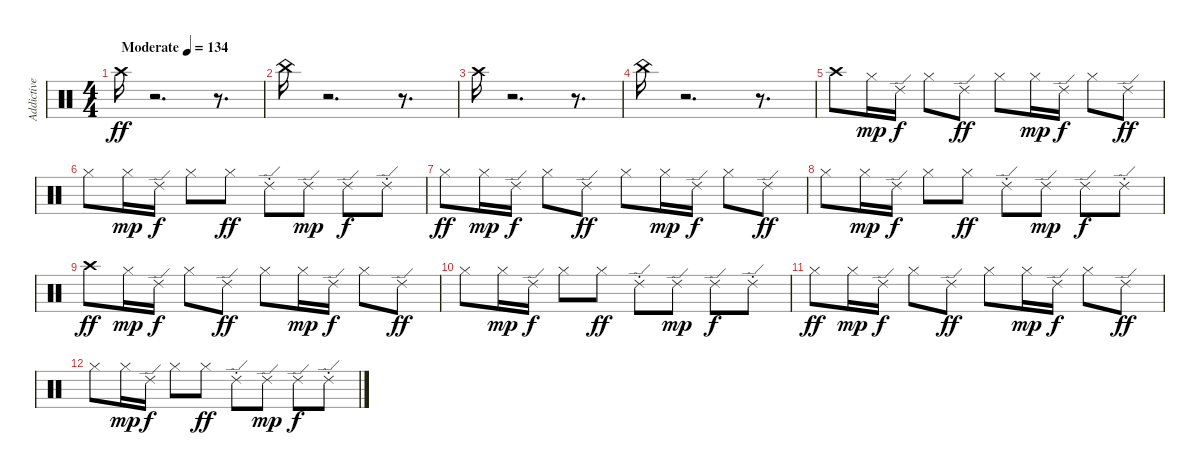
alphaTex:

\track ("Addictive Drums 2 x64 #2 1" "Addictive ") {instrument percussion}
\staff {score}
\articulation defaults
\ts (4 4)
\tempo (134 "Moderate")
\clef neutral
\ks c "Crash high (hit)".16{dy ff}
r.2{d} r.8{d} |
"China (hit)".16 r.2{d} r.8{d} |
"Crash high (hit)".16 r.2{d} r.8{d} |
"China (hit)".16 r.2{d} r.8{d} |
"Crash high (hit)".8 "Hi-Hat (closed)".16{dy mp} "Ride (edge) 2".16{dy f} "Hi-Hat (closed)".8 "Ride (edge) 2".8{dy ff} "Hi-Hat (closed)".8 "Hi-Hat (closed)".16{dy mp} "Ride (edge) 2".16{dy f} "Hi-Hat (closed)".8 "Ride (edge) 2".8{dy ff} |
"Hi-Hat (closed)".8 "Hi-Hat (closed)".16{dy mp} "Ride (edge) 2".16{dy f} "Hi-Hat (closed)".8 "Hi-Hat (closed)".8{dy ff} "Ride (edge) 2"{st}.8 "Ride (edge) 2".8{dy mp} "Ride (edge) 2".8{dy f} "Ride (edge) 2"{st}.8 |
"Hi-Hat (closed)".8{dy ff} "Hi-Hat (closed)".16{dy mp} "Ride (edge) 2".16{dy f} "Hi-Hat (closed)".8 "Ride (edge) 2".8{dy ff} "Hi-Hat (closed)".8 "Hi-Hat (closed)".16{dy mp} "Ride (edge) 2".16{dy f} "Hi-Hat (closed)".8 "Ride (edge) 2".8{dy ff} |
"Hi-Hat (closed)".8 "Hi-Hat (closed)".16{dy mp} "Ride (edge) 2".16{dy f} "Hi-Hat (closed)".8 "Hi-Hat (closed)".8{dy ff} "Ride (edge) 2"{st}.8 "Ride (edge) 2".8{dy mp} "Ride (edge) 2".8{dy f} "Ride (edge) 2"{st}.8 |
"Crash high (hit)".8{dy ff} "Hi-Hat (closed)".16{dy mp} "Ride (edge) 2".16{dy f} "Hi-Hat (closed)".8 "Ride (edge) 2".8{dy ff} "Hi-Hat (closed)".8 "Hi-Hat (closed)".16{dy mp} "Ride (edge) 2".16{dy f} "Hi-Hat (closed)".8 "Ride (edge) 2".8{dy ff} |
"Hi-Hat (closed)".8 "Hi-Hat (closed)".16{dy mp} "Ride (edge) 2".16{dy f} "Hi-Hat (closed)".8 "Hi-Hat (closed)".8{dy ff} "Ride (edge) 2"{st}.8 "Ride (edge) 2".8{dy mp} "Ride (edge) 2".8{dy f} "Ride (edge) 2"{st}.8 |
"Hi-Hat (closed)".8{dy ff} "Hi-Hat (closed)".16{dy mp} "Ride (edge) 2".16{dy f} "Hi-Hat (closed)".8 "Ride (edge) 2".8{dy ff} "Hi-Hat (closed)".8 "Hi-Hat (closed)".16{dy mp} "Ride (edge) 2".16{dy f} "Hi-Hat (closed)".8 "Ride (edge) 2".8{dy ff} |
"Hi-Hat (closed)".8 "Hi-Hat (closed)".16{dy mp} "Ride (edge) 2".16{dy f} "Hi-Hat (closed)".8 "Hi-Hat (closed)".8{dy ff} "Ride (edge) 2"{st}.8 "Ride (edge) 2".8{dy mp} "Ride (edge) 2".8{dy f} "Ride (edge) 2"{st}.8
